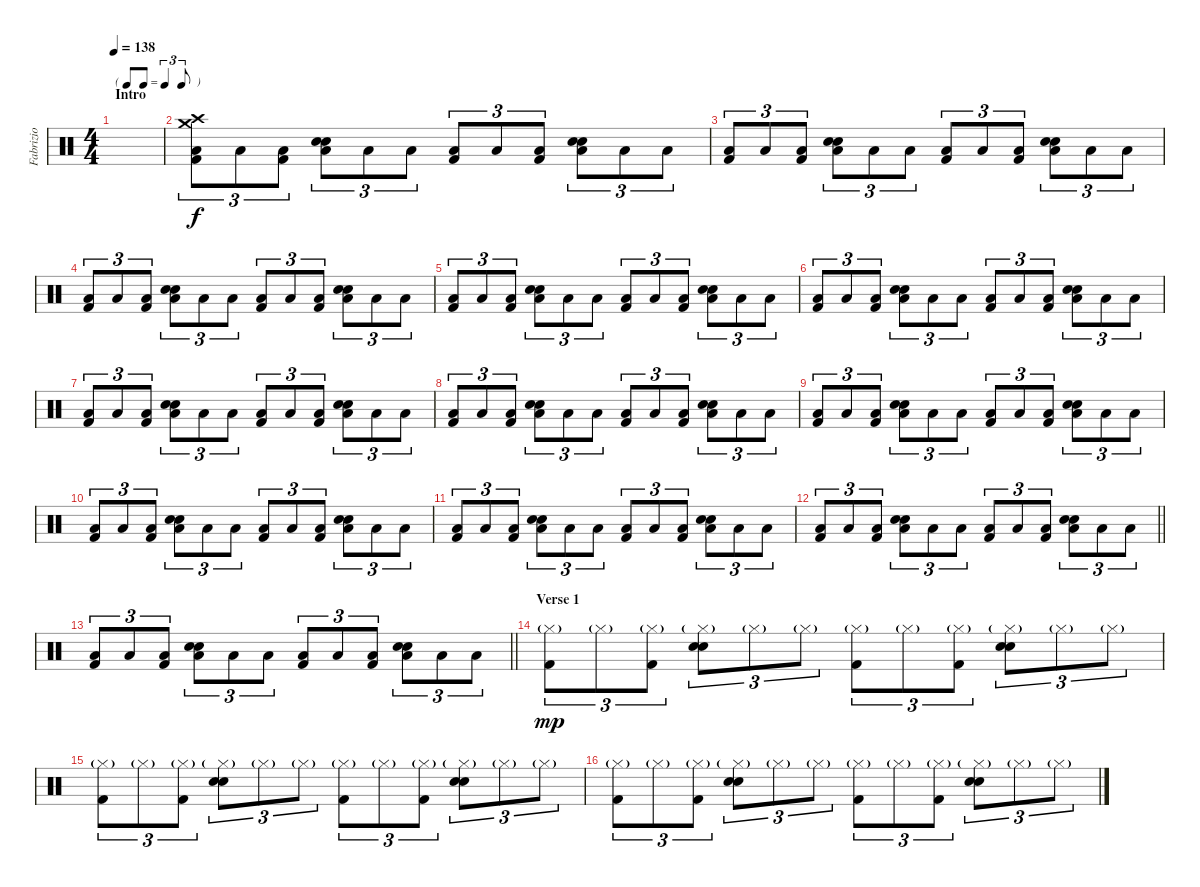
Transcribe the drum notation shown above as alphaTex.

\track ("Fabrizio" "Fabrizio") {instrument percussion}
\staff {score}
\articulation defaults
\ts (4 4)
\tf triplet8th
\section ("" "Intro")
\tempo 138
\clef neutral
\ks c
|
("Crash high (hit)" "Crash medium (hit)" "Kick (hit) 2" "Low Floor Tom (hit)").8{tu (3 2)} "Low Floor Tom (hit)".8{tu (3 2)} ("Kick (hit) 2" "Low Floor Tom (hit)").8{tu (3 2)} ("Electric Snare (hit)" "Snare (hit) 2" "Low Floor Tom (hit)").8{tu (3 2)} "Low Floor Tom (hit)".8{tu (3 2)} "Low Floor Tom (hit)".8{tu (3 2)} ("Kick (hit) 2" "Low Floor Tom (hit)").8{tu (3 2)} "Low Floor Tom (hit)".8{tu (3 2)} ("Kick (hit) 2" "Low Floor Tom (hit)").8{tu (3 2)} ("Electric Snare (hit)" "Snare (hit) 2" "Low Floor Tom (hit)").8{tu (3 2)} "Low Floor Tom (hit)".8{tu (3 2)} "Low Floor Tom (hit)".8{tu (3 2)} |
("Kick (hit) 2" "Low Floor Tom (hit)").8{tu (3 2)} "Low Floor Tom (hit)".8{tu (3 2)} ("Kick (hit) 2" "Low Floor Tom (hit)").8{tu (3 2)} ("Electric Snare (hit)" "Snare (hit) 2" "Low Floor Tom (hit)").8{tu (3 2)} "Low Floor Tom (hit)".8{tu (3 2)} "Low Floor Tom (hit)".8{tu (3 2)} ("Kick (hit) 2" "Low Floor Tom (hit)").8{tu (3 2)} "Low Floor Tom (hit)".8{tu (3 2)} ("Kick (hit) 2" "Low Floor Tom (hit)").8{tu (3 2)} ("Electric Snare (hit)" "Snare (hit) 2" "Low Floor Tom (hit)").8{tu (3 2)} "Low Floor Tom (hit)".8{tu (3 2)} "Low Floor Tom (hit)".8{tu (3 2)} |
("Kick (hit) 2" "Low Floor Tom (hit)").8{tu (3 2)} "Low Floor Tom (hit)".8{tu (3 2)} ("Kick (hit) 2" "Low Floor Tom (hit)").8{tu (3 2)} ("Electric Snare (hit)" "Snare (hit) 2" "Low Floor Tom (hit)").8{tu (3 2)} "Low Floor Tom (hit)".8{tu (3 2)} "Low Floor Tom (hit)".8{tu (3 2)} ("Kick (hit) 2" "Low Floor Tom (hit)").8{tu (3 2)} "Low Floor Tom (hit)".8{tu (3 2)} ("Kick (hit) 2" "Low Floor Tom (hit)").8{tu (3 2)} ("Electric Snare (hit)" "Snare (hit) 2" "Low Floor Tom (hit)").8{tu (3 2)} "Low Floor Tom (hit)".8{tu (3 2)} "Low Floor Tom (hit)".8{tu (3 2)} |
("Kick (hit) 2" "Low Floor Tom (hit)").8{tu (3 2)} "Low Floor Tom (hit)".8{tu (3 2)} ("Kick (hit) 2" "Low Floor Tom (hit)").8{tu (3 2)} ("Electric Snare (hit)" "Snare (hit) 2" "Low Floor Tom (hit)").8{tu (3 2)} "Low Floor Tom (hit)".8{tu (3 2)} "Low Floor Tom (hit)".8{tu (3 2)} ("Kick (hit) 2" "Low Floor Tom (hit)").8{tu (3 2)} "Low Floor Tom (hit)".8{tu (3 2)} ("Kick (hit) 2" "Low Floor Tom (hit)").8{tu (3 2)} ("Electric Snare (hit)" "Snare (hit) 2" "Low Floor Tom (hit)").8{tu (3 2)} "Low Floor Tom (hit)".8{tu (3 2)} "Low Floor Tom (hit)".8{tu (3 2)} |
("Kick (hit) 2" "Low Floor Tom (hit)").8{tu (3 2)} "Low Floor Tom (hit)".8{tu (3 2)} ("Kick (hit) 2" "Low Floor Tom (hit)").8{tu (3 2)} ("Electric Snare (hit)" "Snare (hit) 2" "Low Floor Tom (hit)").8{tu (3 2)} "Low Floor Tom (hit)".8{tu (3 2)} "Low Floor Tom (hit)".8{tu (3 2)} ("Kick (hit) 2" "Low Floor Tom (hit)").8{tu (3 2)} "Low Floor Tom (hit)".8{tu (3 2)} ("Kick (hit) 2" "Low Floor Tom (hit)").8{tu (3 2)} ("Electric Snare (hit)" "Snare (hit) 2" "Low Floor Tom (hit)").8{tu (3 2)} "Low Floor Tom (hit)".8{tu (3 2)} "Low Floor Tom (hit)".8{tu (3 2)} |
("Kick (hit) 2" "Low Floor Tom (hit)").8{tu (3 2)} "Low Floor Tom (hit)".8{tu (3 2)} ("Kick (hit) 2" "Low Floor Tom (hit)").8{tu (3 2)} ("Electric Snare (hit)" "Snare (hit) 2" "Low Floor Tom (hit)").8{tu (3 2)} "Low Floor Tom (hit)".8{tu (3 2)} "Low Floor Tom (hit)".8{tu (3 2)} ("Kick (hit) 2" "Low Floor Tom (hit)").8{tu (3 2)} "Low Floor Tom (hit)".8{tu (3 2)} ("Kick (hit) 2" "Low Floor Tom (hit)").8{tu (3 2)} ("Electric Snare (hit)" "Snare (hit) 2" "Low Floor Tom (hit)").8{tu (3 2)} "Low Floor Tom (hit)".8{tu (3 2)} "Low Floor Tom (hit)".8{tu (3 2)} |
("Kick (hit) 2" "Low Floor Tom (hit)").8{tu (3 2)} "Low Floor Tom (hit)".8{tu (3 2)} ("Kick (hit) 2" "Low Floor Tom (hit)").8{tu (3 2)} ("Electric Snare (hit)" "Snare (hit) 2" "Low Floor Tom (hit)").8{tu (3 2)} "Low Floor Tom (hit)".8{tu (3 2)} "Low Floor Tom (hit)".8{tu (3 2)} ("Kick (hit) 2" "Low Floor Tom (hit)").8{tu (3 2)} "Low Floor Tom (hit)".8{tu (3 2)} ("Kick (hit) 2" "Low Floor Tom (hit)").8{tu (3 2)} ("Electric Snare (hit)" "Snare (hit) 2" "Low Floor Tom (hit)").8{tu (3 2)} "Low Floor Tom (hit)".8{tu (3 2)} "Low Floor Tom (hit)".8{tu (3 2)} |
("Kick (hit) 2" "Low Floor Tom (hit)").8{tu (3 2)} "Low Floor Tom (hit)".8{tu (3 2)} ("Kick (hit) 2" "Low Floor Tom (hit)").8{tu (3 2)} ("Electric Snare (hit)" "Snare (hit) 2" "Low Floor Tom (hit)").8{tu (3 2)} "Low Floor Tom (hit)".8{tu (3 2)} "Low Floor Tom (hit)".8{tu (3 2)} ("Kick (hit) 2" "Low Floor Tom (hit)").8{tu (3 2)} "Low Floor Tom (hit)".8{tu (3 2)} ("Kick (hit) 2" "Low Floor Tom (hit)").8{tu (3 2)} ("Electric Snare (hit)" "Snare (hit) 2" "Low Floor Tom (hit)").8{tu (3 2)} "Low Floor Tom (hit)".8{tu (3 2)} "Low Floor Tom (hit)".8{tu (3 2)} |
("Kick (hit) 2" "Low Floor Tom (hit)").8{tu (3 2)} "Low Floor Tom (hit)".8{tu (3 2)} ("Kick (hit) 2" "Low Floor Tom (hit)").8{tu (3 2)} ("Electric Snare (hit)" "Snare (hit) 2" "Low Floor Tom (hit)").8{tu (3 2)} "Low Floor Tom (hit)".8{tu (3 2)} "Low Floor Tom (hit)".8{tu (3 2)} ("Kick (hit) 2" "Low Floor Tom (hit)").8{tu (3 2)} "Low Floor Tom (hit)".8{tu (3 2)} ("Kick (hit) 2" "Low Floor Tom (hit)").8{tu (3 2)} ("Electric Snare (hit)" "Snare (hit) 2" "Low Floor Tom (hit)").8{tu (3 2)} "Low Floor Tom (hit)".8{tu (3 2)} "Low Floor Tom (hit)".8{tu (3 2)} |
("Kick (hit) 2" "Low Floor Tom (hit)").8{tu (3 2)} "Low Floor Tom (hit)".8{tu (3 2)} ("Kick (hit) 2" "Low Floor Tom (hit)").8{tu (3 2)} ("Electric Snare (hit)" "Snare (hit) 2" "Low Floor Tom (hit)").8{tu (3 2)} "Low Floor Tom (hit)".8{tu (3 2)} "Low Floor Tom (hit)".8{tu (3 2)} ("Kick (hit) 2" "Low Floor Tom (hit)").8{tu (3 2)} "Low Floor Tom (hit)".8{tu (3 2)} ("Kick (hit) 2" "Low Floor Tom (hit)").8{tu (3 2)} ("Electric Snare (hit)" "Snare (hit) 2" "Low Floor Tom (hit)").8{tu (3 2)} "Low Floor Tom (hit)".8{tu (3 2)} "Low Floor Tom (hit)".8{tu (3 2)} |
\barLineRight lightlight
("Kick (hit) 2" "Low Floor Tom (hit)").8{tu (3 2)} "Low Floor Tom (hit)".8{tu (3 2)} ("Kick (hit) 2" "Low Floor Tom (hit)").8{tu (3 2)} ("Electric Snare (hit)" "Snare (hit) 2" "Low Floor Tom (hit)").8{tu (3 2)} "Low Floor Tom (hit)".8{tu (3 2)} "Low Floor Tom (hit)".8{tu (3 2)} ("Kick (hit) 2" "Low Floor Tom (hit)").8{tu (3 2)} "Low Floor Tom (hit)".8{tu (3 2)} ("Kick (hit) 2" "Low Floor Tom (hit)").8{tu (3 2)} ("Electric Snare (hit)" "Snare (hit) 2" "Low Floor Tom (hit)").8{tu (3 2)} "Low Floor Tom (hit)".8{tu (3 2)} "Low Floor Tom (hit)".8{tu (3 2)} |
\barLineRight lightlight
("Kick (hit) 2" "Low Floor Tom (hit)").8{tu (3 2)} "Low Floor Tom (hit)".8{tu (3 2)} ("Kick (hit) 2" "Low Floor Tom (hit)").8{tu (3 2)} ("Electric Snare (hit)" "Snare (hit) 2" "Low Floor Tom (hit)").8{tu (3 2)} "Low Floor Tom (hit)".8{tu (3 2)} "Low Floor Tom (hit)".8{tu (3 2)} ("Kick (hit) 2" "Low Floor Tom (hit)").8{tu (3 2)} "Low Floor Tom (hit)".8{tu (3 2)} ("Kick (hit) 2" "Low Floor Tom (hit)").8{tu (3 2)} ("Electric Snare (hit)" "Snare (hit) 2" "Low Floor Tom (hit)").8{tu (3 2)} "Low Floor Tom (hit)".8{tu (3 2)} "Low Floor Tom (hit)".8{tu (3 2)} |
\section ("" "Verse 1")
("Hi-Hat (closed)"{g} "Kick (hit) 2").8{tu (3 2) dy mp} "Hi-Hat (closed)"{g}.8{tu (3 2)} ("Hi-Hat (closed)"{g} "Kick (hit) 2").8{tu (3 2)} ("Hi-Hat (closed)"{g} "Electric Snare (hit)" "Snare (hit) 2").8{tu (3 2)} "Hi-Hat (closed)"{g}.8{tu (3 2)} "Hi-Hat (closed)"{g}.8{tu (3 2)} ("Hi-Hat (closed)"{g} "Kick (hit) 2").8{tu (3 2)} "Hi-Hat (closed)"{g}.8{tu (3 2)} ("Hi-Hat (closed)"{g} "Kick (hit) 2").8{tu (3 2)} ("Hi-Hat (closed)"{g} "Electric Snare (hit)" "Snare (hit) 2").8{tu (3 2)} "Hi-Hat (closed)"{g}.8{tu (3 2)} "Hi-Hat (closed)"{g}.8{tu (3 2)} |
("Hi-Hat (closed)"{g} "Kick (hit) 2").8{tu (3 2)} "Hi-Hat (closed)"{g}.8{tu (3 2)} ("Hi-Hat (closed)"{g} "Kick (hit) 2").8{tu (3 2)} ("Hi-Hat (closed)"{g} "Electric Snare (hit)" "Snare (hit) 2").8{tu (3 2)} "Hi-Hat (closed)"{g}.8{tu (3 2)} "Hi-Hat (closed)"{g}.8{tu (3 2)} ("Hi-Hat (closed)"{g} "Kick (hit) 2").8{tu (3 2)} "Hi-Hat (closed)"{g}.8{tu (3 2)} ("Hi-Hat (closed)"{g} "Kick (hit) 2").8{tu (3 2)} ("Hi-Hat (closed)"{g} "Electric Snare (hit)" "Snare (hit) 2").8{tu (3 2)} "Hi-Hat (closed)"{g}.8{tu (3 2)} "Hi-Hat (closed)"{g}.8{tu (3 2)} |
("Hi-Hat (closed)"{g} "Kick (hit) 2").8{tu (3 2)} "Hi-Hat (closed)"{g}.8{tu (3 2)} ("Hi-Hat (closed)"{g} "Kick (hit) 2").8{tu (3 2)} ("Hi-Hat (closed)"{g} "Electric Snare (hit)" "Snare (hit) 2").8{tu (3 2)} "Hi-Hat (closed)"{g}.8{tu (3 2)} "Hi-Hat (closed)"{g}.8{tu (3 2)} ("Hi-Hat (closed)"{g} "Kick (hit) 2").8{tu (3 2)} "Hi-Hat (closed)"{g}.8{tu (3 2)} ("Hi-Hat (closed)"{g} "Kick (hit) 2").8{tu (3 2)} ("Hi-Hat (closed)"{g} "Electric Snare (hit)" "Snare (hit) 2").8{tu (3 2)} "Hi-Hat (closed)"{g}.8{tu (3 2)} "Hi-Hat (closed)"{g}.8{tu (3 2)}
